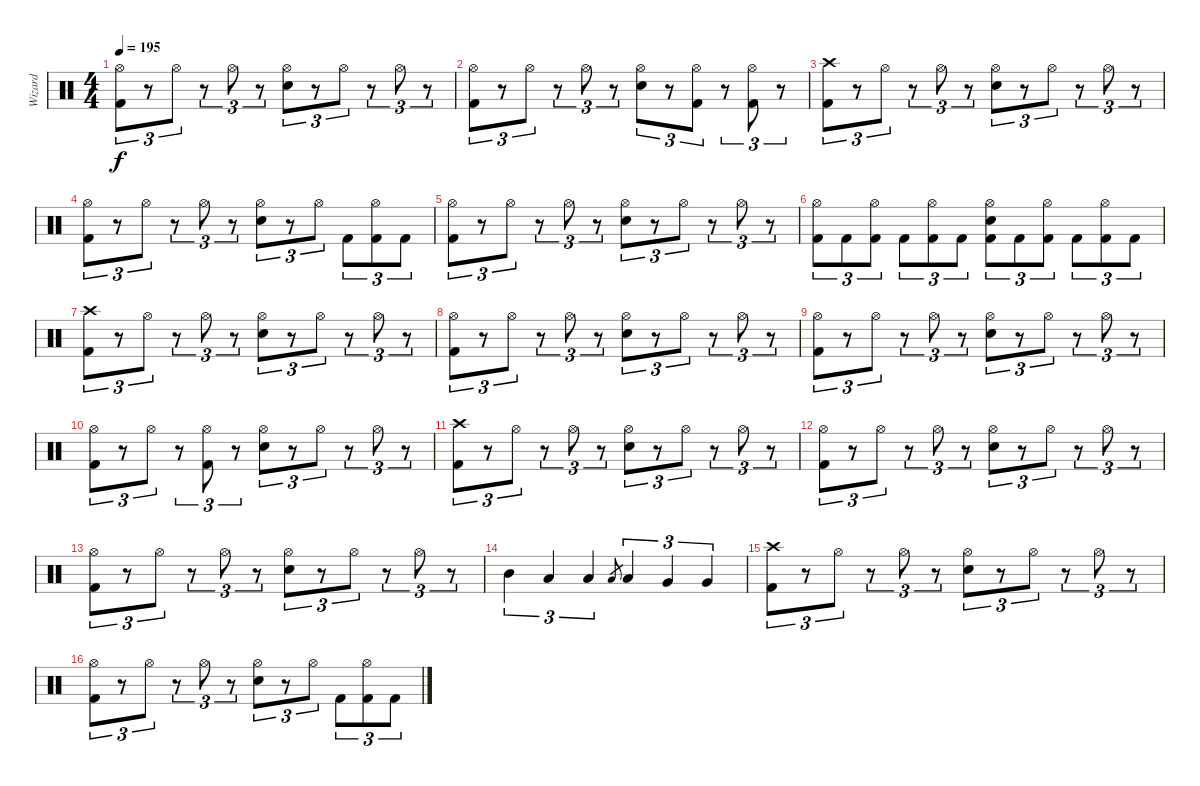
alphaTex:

\track ("Wizard" "Wizard") {instrument percussion}
\staff {score}
\articulation defaults
\ts (4 4)
\tempo 195
\clef neutral
\ks c
("Hi-Hat (open)" "Kick (hit) 2").8{tu (3 2) dy f} r.8{tu (3 2)} "Hi-Hat (open)".8{tu (3 2)} r.8{tu (3 2)} "Hi-Hat (open)".8{tu (3 2)} r.8{tu (3 2)} ("Hi-Hat (open)" "Snare (hit) 2").8{tu (3 2)} r.8{tu (3 2)} "Hi-Hat (open)".8{tu (3 2)} r.8{tu (3 2)} "Hi-Hat (open)".8{tu (3 2)} r.8{tu (3 2)} |
("Hi-Hat (open)" "Kick (hit) 2").8{tu (3 2)} r.8{tu (3 2)} "Hi-Hat (open)".8{tu (3 2)} r.8{tu (3 2)} "Hi-Hat (open)".8{tu (3 2)} r.8{tu (3 2)} ("Hi-Hat (open)" "Snare (hit) 2").8{tu (3 2)} r.8{tu (3 2)} ("Hi-Hat (open)" "Kick (hit) 2").8{tu (3 2)} r.8{tu (3 2)} ("Hi-Hat (open)" "Kick (hit) 2").8{tu (3 2)} r.8{tu (3 2)} |
("Crash high (hit)" "Kick (hit) 2").8{tu (3 2)} r.8{tu (3 2)} "Hi-Hat (open)".8{tu (3 2)} r.8{tu (3 2)} "Hi-Hat (open)".8{tu (3 2)} r.8{tu (3 2)} ("Hi-Hat (open)" "Snare (hit) 2").8{tu (3 2)} r.8{tu (3 2)} "Hi-Hat (open)".8{tu (3 2)} r.8{tu (3 2)} "Hi-Hat (open)".8{tu (3 2)} r.8{tu (3 2)} |
("Hi-Hat (open)" "Kick (hit) 2").8{tu (3 2)} r.8{tu (3 2)} "Hi-Hat (open)".8{tu (3 2)} r.8{tu (3 2)} "Hi-Hat (open)".8{tu (3 2)} r.8{tu (3 2)} ("Hi-Hat (open)" "Snare (hit) 2").8{tu (3 2)} r.8{tu (3 2)} "Hi-Hat (open)".8{tu (3 2)} "Kick (hit) 2".8{tu (3 2)} ("Hi-Hat (open)" "Kick (hit) 2").8{tu (3 2)} "Kick (hit) 2".8{tu (3 2)} |
("Hi-Hat (open)" "Kick (hit) 2").8{tu (3 2)} r.8{tu (3 2)} "Hi-Hat (open)".8{tu (3 2)} r.8{tu (3 2)} "Hi-Hat (open)".8{tu (3 2)} r.8{tu (3 2)} ("Hi-Hat (open)" "Snare (hit) 2").8{tu (3 2)} r.8{tu (3 2)} "Hi-Hat (open)".8{tu (3 2)} r.8{tu (3 2)} "Hi-Hat (open)".8{tu (3 2)} r.8{tu (3 2)} |
("Hi-Hat (open)" "Kick (hit) 2").8{tu (3 2)} "Kick (hit) 2".8{tu (3 2)} ("Hi-Hat (open)" "Kick (hit) 2").8{tu (3 2)} "Kick (hit) 2".8{tu (3 2)} ("Hi-Hat (open)" "Kick (hit) 2").8{tu (3 2)} "Kick (hit) 2".8{tu (3 2)} ("Hi-Hat (open)" "Snare (hit) 2" "Kick (hit) 2").8{tu (3 2)} "Kick (hit) 2".8{tu (3 2)} ("Hi-Hat (open)" "Kick (hit) 2").8{tu (3 2)} "Kick (hit) 2".8{tu (3 2)} ("Hi-Hat (open)" "Kick (hit) 2").8{tu (3 2)} "Kick (hit) 2".8{tu (3 2)} |
("Crash high (hit)" "Kick (hit) 2").8{tu (3 2)} r.8{tu (3 2)} "Hi-Hat (open)".8{tu (3 2)} r.8{tu (3 2)} "Hi-Hat (open)".8{tu (3 2)} r.8{tu (3 2)} ("Hi-Hat (open)" "Snare (hit) 2").8{tu (3 2)} r.8{tu (3 2)} "Hi-Hat (open)".8{tu (3 2)} r.8{tu (3 2)} "Hi-Hat (open)".8{tu (3 2)} r.8{tu (3 2)} |
("Hi-Hat (open)" "Kick (hit) 2").8{tu (3 2)} r.8{tu (3 2)} "Hi-Hat (open)".8{tu (3 2)} r.8{tu (3 2)} "Hi-Hat (open)".8{tu (3 2)} r.8{tu (3 2)} ("Hi-Hat (open)" "Snare (hit) 2").8{tu (3 2)} r.8{tu (3 2)} "Hi-Hat (open)".8{tu (3 2)} r.8{tu (3 2)} "Hi-Hat (open)".8{tu (3 2)} r.8{tu (3 2)} |
("Hi-Hat (open)" "Kick (hit) 2").8{tu (3 2)} r.8{tu (3 2)} "Hi-Hat (open)".8{tu (3 2)} r.8{tu (3 2)} "Hi-Hat (open)".8{tu (3 2)} r.8{tu (3 2)} ("Hi-Hat (open)" "Snare (hit) 2").8{tu (3 2)} r.8{tu (3 2)} "Hi-Hat (open)".8{tu (3 2)} r.8{tu (3 2)} "Hi-Hat (open)".8{tu (3 2)} r.8{tu (3 2)} |
("Hi-Hat (open)" "Kick (hit) 2").8{tu (3 2)} r.8{tu (3 2)} "Hi-Hat (open)".8{tu (3 2)} r.8{tu (3 2)} ("Hi-Hat (open)" "Kick (hit) 2").8{tu (3 2)} r.8{tu (3 2)} ("Hi-Hat (open)" "Snare (hit) 2").8{tu (3 2)} r.8{tu (3 2)} "Hi-Hat (open)".8{tu (3 2)} r.8{tu (3 2)} "Hi-Hat (open)".8{tu (3 2)} r.8{tu (3 2)} |
("Crash high (hit)" "Kick (hit) 2").8{tu (3 2)} r.8{tu (3 2)} "Hi-Hat (open)".8{tu (3 2)} r.8{tu (3 2)} "Hi-Hat (open)".8{tu (3 2)} r.8{tu (3 2)} ("Hi-Hat (open)" "Snare (hit) 2").8{tu (3 2)} r.8{tu (3 2)} "Hi-Hat (open)".8{tu (3 2)} r.8{tu (3 2)} "Hi-Hat (open)".8{tu (3 2)} r.8{tu (3 2)} |
("Hi-Hat (open)" "Kick (hit) 2").8{tu (3 2)} r.8{tu (3 2)} "Hi-Hat (open)".8{tu (3 2)} r.8{tu (3 2)} "Hi-Hat (open)".8{tu (3 2)} r.8{tu (3 2)} ("Hi-Hat (open)" "Snare (hit) 2").8{tu (3 2)} r.8{tu (3 2)} "Hi-Hat (open)".8{tu (3 2)} r.8{tu (3 2)} "Hi-Hat (open)".8{tu (3 2)} r.8{tu (3 2)} |
("Hi-Hat (open)" "Kick (hit) 2").8{tu (3 2)} r.8{tu (3 2)} "Hi-Hat (open)".8{tu (3 2)} r.8{tu (3 2)} "Hi-Hat (open)".8{tu (3 2)} r.8{tu (3 2)} ("Hi-Hat (open)" "Snare (hit) 2").8{tu (3 2)} r.8{tu (3 2)} "Hi-Hat (open)".8{tu (3 2)} r.8{tu (3 2)} "Hi-Hat (open)".8{tu (3 2)} r.8{tu (3 2)} |
"Mid Tom (hit)".4{tu (3 2)} "Low Tom (hit)".4{tu (3 2)} "Low Tom (hit)".4{tu (3 2)} "Low Tom (hit)".8{gr} "Low Tom (hit)".4{tu (3 2)} "Very Low Tom (hit)".4{tu (3 2)} "Very Low Tom (hit)".4{tu (3 2)} |
("Crash high (hit)" "Kick (hit) 2").8{tu (3 2)} r.8{tu (3 2)} "Hi-Hat (open)".8{tu (3 2)} r.8{tu (3 2)} "Hi-Hat (open)".8{tu (3 2)} r.8{tu (3 2)} ("Hi-Hat (open)" "Snare (hit) 2").8{tu (3 2)} r.8{tu (3 2)} "Hi-Hat (open)".8{tu (3 2)} r.8{tu (3 2)} "Hi-Hat (open)".8{tu (3 2)} r.8{tu (3 2)} |
("Hi-Hat (open)" "Kick (hit) 2").8{tu (3 2)} r.8{tu (3 2)} "Hi-Hat (open)".8{tu (3 2)} r.8{tu (3 2)} "Hi-Hat (open)".8{tu (3 2)} r.8{tu (3 2)} ("Hi-Hat (open)" "Snare (hit) 2").8{tu (3 2)} r.8{tu (3 2)} "Hi-Hat (open)".8{tu (3 2)} "Kick (hit) 2".8{tu (3 2)} ("Hi-Hat (open)" "Kick (hit) 2").8{tu (3 2)} "Kick (hit) 2".8{tu (3 2)}
